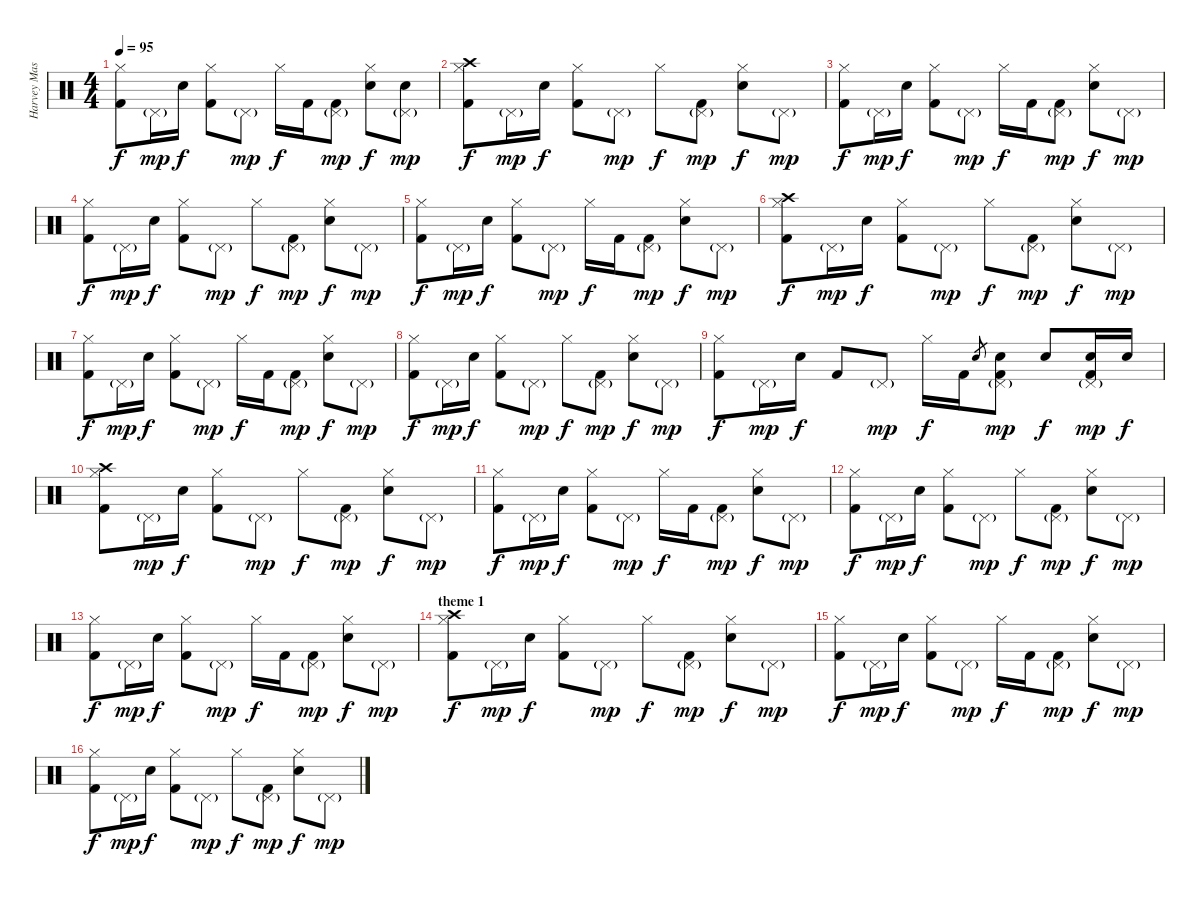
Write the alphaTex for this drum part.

\track ("Harvey Mason (batterie)" "Harvey Mas") {instrument percussion}
\staff {score}
\articulation defaults
\ts (4 4)
\tempo 95
\clef neutral
\ks c
("Kick (hit) 2" "Hi-Hat (closed)").8{dy f} "Pedal Hi-Hat (hit)"{g}.16{dy mp} "Electric Snare (hit)".16{dy f} ("Kick (hit) 2" "Hi-Hat (closed)").8 "Pedal Hi-Hat (hit)"{g}.8{dy mp} "Hi-Hat (closed)".16{dy f} "Kick (hit) 2".16 ("Kick (hit) 2" "Pedal Hi-Hat (hit)"{g}).8{dy mp} ("Electric Snare (hit)" "Hi-Hat (closed)").8{dy f} ("Electric Snare (hit)" "Pedal Hi-Hat (hit)"{g}).8{dy mp} |
("Kick (hit) 2" "Hi-Hat (closed)" "Crash high (hit)").8{dy f} "Pedal Hi-Hat (hit)"{g}.16{dy mp} "Electric Snare (hit)".16{dy f} ("Kick (hit) 2" "Hi-Hat (closed)").8 "Pedal Hi-Hat (hit)"{g}.8{dy mp} "Hi-Hat (closed)".8{dy f} ("Kick (hit) 2" "Pedal Hi-Hat (hit)"{g}).8{dy mp} ("Electric Snare (hit)" "Hi-Hat (closed)").8{dy f} "Pedal Hi-Hat (hit)"{g}.8{dy mp} |
("Kick (hit) 2" "Hi-Hat (closed)").8{dy f} "Pedal Hi-Hat (hit)"{g}.16{dy mp} "Electric Snare (hit)".16{dy f} ("Kick (hit) 2" "Hi-Hat (closed)").8 "Pedal Hi-Hat (hit)"{g}.8{dy mp} "Hi-Hat (closed)".16{dy f} "Kick (hit) 2".16 ("Kick (hit) 2" "Pedal Hi-Hat (hit)"{g}).8{dy mp} ("Electric Snare (hit)" "Hi-Hat (closed)").8{dy f} "Pedal Hi-Hat (hit)"{g}.8{dy mp} |
("Kick (hit) 2" "Hi-Hat (closed)").8{dy f} "Pedal Hi-Hat (hit)"{g}.16{dy mp} "Electric Snare (hit)".16{dy f} ("Kick (hit) 2" "Hi-Hat (closed)").8 "Pedal Hi-Hat (hit)"{g}.8{dy mp} "Hi-Hat (closed)".8{dy f} ("Kick (hit) 2" "Pedal Hi-Hat (hit)"{g}).8{dy mp} ("Electric Snare (hit)" "Hi-Hat (closed)").8{dy f} "Pedal Hi-Hat (hit)"{g}.8{dy mp} |
("Kick (hit) 2" "Hi-Hat (closed)").8{dy f} "Pedal Hi-Hat (hit)"{g}.16{dy mp} "Electric Snare (hit)".16{dy f} ("Kick (hit) 2" "Hi-Hat (closed)").8 "Pedal Hi-Hat (hit)"{g}.8{dy mp} "Hi-Hat (closed)".16{dy f} "Kick (hit) 2".16 ("Kick (hit) 2" "Pedal Hi-Hat (hit)"{g}).8{dy mp} ("Electric Snare (hit)" "Hi-Hat (closed)").8{dy f} "Pedal Hi-Hat (hit)"{g}.8{dy mp} |
("Kick (hit) 2" "Hi-Hat (closed)" "Crash high (hit)").8{dy f} "Pedal Hi-Hat (hit)"{g}.16{dy mp} "Electric Snare (hit)".16{dy f} ("Kick (hit) 2" "Hi-Hat (closed)").8 "Pedal Hi-Hat (hit)"{g}.8{dy mp} "Hi-Hat (closed)".8{dy f} ("Kick (hit) 2" "Pedal Hi-Hat (hit)"{g}).8{dy mp} ("Electric Snare (hit)" "Hi-Hat (closed)").8{dy f} "Pedal Hi-Hat (hit)"{g}.8{dy mp} |
("Kick (hit) 2" "Hi-Hat (closed)").8{dy f} "Pedal Hi-Hat (hit)"{g}.16{dy mp} "Electric Snare (hit)".16{dy f} ("Kick (hit) 2" "Hi-Hat (closed)").8 "Pedal Hi-Hat (hit)"{g}.8{dy mp} "Hi-Hat (closed)".16{dy f} "Kick (hit) 2".16 ("Kick (hit) 2" "Pedal Hi-Hat (hit)"{g}).8{dy mp} ("Electric Snare (hit)" "Hi-Hat (closed)").8{dy f} "Pedal Hi-Hat (hit)"{g}.8{dy mp} |
("Kick (hit) 2" "Hi-Hat (closed)").8{dy f} "Pedal Hi-Hat (hit)"{g}.16{dy mp} "Electric Snare (hit)".16{dy f} ("Kick (hit) 2" "Hi-Hat (closed)").8 "Pedal Hi-Hat (hit)"{g}.8{dy mp} "Hi-Hat (closed)".8{dy f} ("Kick (hit) 2" "Pedal Hi-Hat (hit)"{g}).8{dy mp} ("Electric Snare (hit)" "Hi-Hat (closed)").8{dy f} "Pedal Hi-Hat (hit)"{g}.8{dy mp} |
("Kick (hit) 2" "Hi-Hat (closed)").8{dy f} "Pedal Hi-Hat (hit)"{g}.16{dy mp} "Electric Snare (hit)".16{dy f} "Kick (hit) 2".8 "Pedal Hi-Hat (hit)"{g}.8{dy mp} "Hi-Hat (closed)".16{dy f} "Kick (hit) 2".16 "Electric Snare (hit)".8{gr} ("Kick (hit) 2" "Pedal Hi-Hat (hit)"{g} "Electric Snare (hit)").8{dy mp} "Electric Snare (hit)".8{dy f} ("Electric Snare (hit)" "Pedal Hi-Hat (hit)"{g} "Kick (hit) 2").16{dy mp} "Electric Snare (hit)".16{dy f} |
("Kick (hit) 2" "Hi-Hat (closed)" "Crash high (hit)").8 "Pedal Hi-Hat (hit)"{g}.16{dy mp} "Electric Snare (hit)".16{dy f} ("Kick (hit) 2" "Hi-Hat (closed)").8 "Pedal Hi-Hat (hit)"{g}.8{dy mp} "Hi-Hat (closed)".8{dy f} ("Kick (hit) 2" "Pedal Hi-Hat (hit)"{g}).8{dy mp} ("Electric Snare (hit)" "Hi-Hat (closed)").8{dy f} "Pedal Hi-Hat (hit)"{g}.8{dy mp} |
("Kick (hit) 2" "Hi-Hat (closed)").8{dy f} "Pedal Hi-Hat (hit)"{g}.16{dy mp} "Electric Snare (hit)".16{dy f} ("Kick (hit) 2" "Hi-Hat (closed)").8 "Pedal Hi-Hat (hit)"{g}.8{dy mp} "Hi-Hat (closed)".16{dy f} "Kick (hit) 2".16 ("Kick (hit) 2" "Pedal Hi-Hat (hit)"{g}).8{dy mp} ("Electric Snare (hit)" "Hi-Hat (closed)").8{dy f} "Pedal Hi-Hat (hit)"{g}.8{dy mp} |
("Kick (hit) 2" "Hi-Hat (closed)").8{dy f} "Pedal Hi-Hat (hit)"{g}.16{dy mp} "Electric Snare (hit)".16{dy f} ("Kick (hit) 2" "Hi-Hat (closed)").8 "Pedal Hi-Hat (hit)"{g}.8{dy mp} "Hi-Hat (closed)".8{dy f} ("Kick (hit) 2" "Pedal Hi-Hat (hit)"{g}).8{dy mp} ("Electric Snare (hit)" "Hi-Hat (closed)").8{dy f} "Pedal Hi-Hat (hit)"{g}.8{dy mp} |
("Kick (hit) 2" "Hi-Hat (closed)").8{dy f} "Pedal Hi-Hat (hit)"{g}.16{dy mp} "Electric Snare (hit)".16{dy f} ("Kick (hit) 2" "Hi-Hat (closed)").8 "Pedal Hi-Hat (hit)"{g}.8{dy mp} "Hi-Hat (closed)".16{dy f} "Kick (hit) 2".16 ("Kick (hit) 2" "Pedal Hi-Hat (hit)"{g}).8{dy mp} ("Electric Snare (hit)" "Hi-Hat (closed)").8{dy f} "Pedal Hi-Hat (hit)"{g}.8{dy mp} |
\section ("" "theme 1")
("Kick (hit) 2" "Hi-Hat (closed)" "Crash high (hit)").8{dy f} "Pedal Hi-Hat (hit)"{g}.16{dy mp} "Electric Snare (hit)".16{dy f} ("Kick (hit) 2" "Hi-Hat (closed)").8 "Pedal Hi-Hat (hit)"{g}.8{dy mp} "Hi-Hat (closed)".8{dy f} ("Kick (hit) 2" "Pedal Hi-Hat (hit)"{g}).8{dy mp} ("Electric Snare (hit)" "Hi-Hat (closed)").8{dy f} "Pedal Hi-Hat (hit)"{g}.8{dy mp} |
("Kick (hit) 2" "Hi-Hat (closed)").8{dy f} "Pedal Hi-Hat (hit)"{g}.16{dy mp} "Electric Snare (hit)".16{dy f} ("Kick (hit) 2" "Hi-Hat (closed)").8 "Pedal Hi-Hat (hit)"{g}.8{dy mp} "Hi-Hat (closed)".16{dy f} "Kick (hit) 2".16 ("Kick (hit) 2" "Pedal Hi-Hat (hit)"{g}).8{dy mp} ("Electric Snare (hit)" "Hi-Hat (closed)").8{dy f} "Pedal Hi-Hat (hit)"{g}.8{dy mp} |
("Kick (hit) 2" "Hi-Hat (closed)").8{dy f} "Pedal Hi-Hat (hit)"{g}.16{dy mp} "Electric Snare (hit)".16{dy f} ("Kick (hit) 2" "Hi-Hat (closed)").8 "Pedal Hi-Hat (hit)"{g}.8{dy mp} "Hi-Hat (closed)".8{dy f} ("Kick (hit) 2" "Pedal Hi-Hat (hit)"{g}).8{dy mp} ("Electric Snare (hit)" "Hi-Hat (closed)").8{dy f} "Pedal Hi-Hat (hit)"{g}.8{dy mp}
